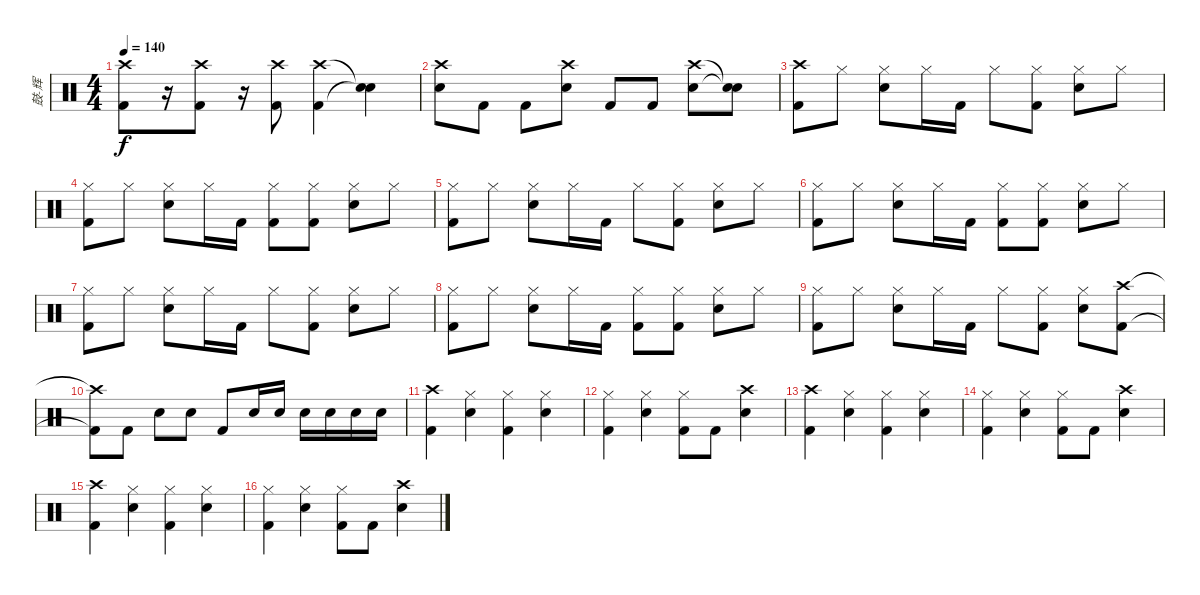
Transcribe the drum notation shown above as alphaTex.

\track ("鼓-辉" "鼓-辉") {instrument percussion}
\staff {score}
\articulation defaults
\ts (4 4)
\tempo 140
\clef neutral
\ks c
("Crash high (hit)" "Kick (hit) 2").8{dy f} r.16 ("Crash high (hit)" "Kick (hit) 2").8 r.16 ("Crash high (hit)" "Kick (hit) 2").8 ("Crash high (hit)" "Kick (hit) 2").4 ("Snare (hit)"{t} "Snare (hit)"{t}).4 |
("Crash high (hit)" "Snare (hit) 2").8 "Kick (hit) 2".8 "Kick (hit) 2".8 ("Crash high (hit)" "Snare (hit) 2").8 "Kick (hit) 2".8 "Kick (hit) 2".8 ("Crash high (hit)" "Snare (hit) 2").8 ("Snare (hit)"{t} "Snare (hit)"{t}).8 |
("Crash high (hit)" "Kick (hit) 2").8 "Hi-Hat (closed)".8 ("Hi-Hat (closed)" "Snare (hit) 2").8 "Hi-Hat (closed)".16 "Kick (hit) 2".16 "Hi-Hat (closed)".8 ("Hi-Hat (closed)" "Kick (hit) 2").8 ("Hi-Hat (closed)" "Snare (hit) 2").8 "Hi-Hat (closed)".8 |
("Hi-Hat (closed)" "Kick (hit) 2").8 "Hi-Hat (closed)".8 ("Hi-Hat (closed)" "Snare (hit) 2").8 "Hi-Hat (closed)".16 "Kick (hit) 2".16 ("Hi-Hat (closed)" "Kick (hit) 2").8 ("Hi-Hat (closed)" "Kick (hit) 2").8 ("Hi-Hat (closed)" "Snare (hit) 2").8 "Hi-Hat (closed)".8 |
("Hi-Hat (closed)" "Kick (hit) 2").8 "Hi-Hat (closed)".8 ("Hi-Hat (closed)" "Snare (hit) 2").8 "Hi-Hat (closed)".16 "Kick (hit) 2".16 "Hi-Hat (closed)".8 ("Hi-Hat (closed)" "Kick (hit) 2").8 ("Hi-Hat (closed)" "Snare (hit) 2").8 "Hi-Hat (closed)".8 |
("Hi-Hat (closed)" "Kick (hit) 2").8 "Hi-Hat (closed)".8 ("Hi-Hat (closed)" "Snare (hit) 2").8 "Hi-Hat (closed)".16 "Kick (hit) 2".16 ("Hi-Hat (closed)" "Kick (hit) 2").8 ("Hi-Hat (closed)" "Kick (hit) 2").8 ("Hi-Hat (closed)" "Snare (hit) 2").8 "Hi-Hat (closed)".8 |
("Hi-Hat (closed)" "Kick (hit) 2").8 "Hi-Hat (closed)".8 ("Hi-Hat (closed)" "Snare (hit) 2").8 "Hi-Hat (closed)".16 "Kick (hit) 2".16 "Hi-Hat (closed)".8 ("Hi-Hat (closed)" "Kick (hit) 2").8 ("Hi-Hat (closed)" "Snare (hit) 2").8 "Hi-Hat (closed)".8 |
("Hi-Hat (closed)" "Kick (hit) 2").8 "Hi-Hat (closed)".8 ("Hi-Hat (closed)" "Snare (hit) 2").8 "Hi-Hat (closed)".16 "Kick (hit) 2".16 ("Hi-Hat (closed)" "Kick (hit) 2").8 ("Hi-Hat (closed)" "Kick (hit) 2").8 ("Hi-Hat (closed)" "Snare (hit) 2").8 "Hi-Hat (closed)".8 |
("Hi-Hat (closed)" "Kick (hit) 2").8 "Hi-Hat (closed)".8 ("Hi-Hat (closed)" "Snare (hit) 2").8 "Hi-Hat (closed)".16 "Kick (hit) 2".16 "Hi-Hat (closed)".8 ("Hi-Hat (closed)" "Kick (hit) 2").8 ("Hi-Hat (closed)" "Snare (hit) 2").8 ("Crash high (hit)" "Kick (hit) 2").8 |
("Crash high (hit)"{t} "Kick (hit) 2"{t}).8 "Kick (hit) 2".8 "Snare (hit) 2".8 "Snare (hit) 2".8 "Kick (hit) 2".8 "Snare (hit) 2".16 "Snare (hit) 2".16 "Snare (hit) 2".16 "Snare (hit) 2".16 "Snare (hit) 2".16 "Snare (hit) 2".16 |
("Crash high (hit)" "Kick (hit) 2").4 ("Hi-Hat (closed)" "Snare (hit) 2").4 ("Hi-Hat (closed)" "Kick (hit) 2").4 ("Hi-Hat (closed)" "Snare (hit) 2").4 |
("Hi-Hat (closed)" "Kick (hit) 2").4 ("Hi-Hat (closed)" "Snare (hit) 2").4 ("Hi-Hat (closed)" "Kick (hit) 2").8 "Kick (hit) 2".8 ("Crash high (hit)" "Snare (hit) 2").4 |
("Crash high (hit)" "Kick (hit) 2").4 ("Hi-Hat (closed)" "Snare (hit) 2").4 ("Hi-Hat (closed)" "Kick (hit) 2").4 ("Hi-Hat (closed)" "Snare (hit) 2").4 |
("Hi-Hat (closed)" "Kick (hit) 2").4 ("Hi-Hat (closed)" "Snare (hit) 2").4 ("Hi-Hat (closed)" "Kick (hit) 2").8 "Kick (hit) 2".8 ("Crash high (hit)" "Snare (hit) 2").4 |
("Crash high (hit)" "Kick (hit) 2").4 ("Hi-Hat (closed)" "Snare (hit) 2").4 ("Hi-Hat (closed)" "Kick (hit) 2").4 ("Hi-Hat (closed)" "Snare (hit) 2").4 |
("Hi-Hat (closed)" "Kick (hit) 2").4 ("Hi-Hat (closed)" "Snare (hit) 2").4 ("Hi-Hat (closed)" "Kick (hit) 2").8 "Kick (hit) 2".8 ("Crash high (hit)" "Snare (hit) 2").4
